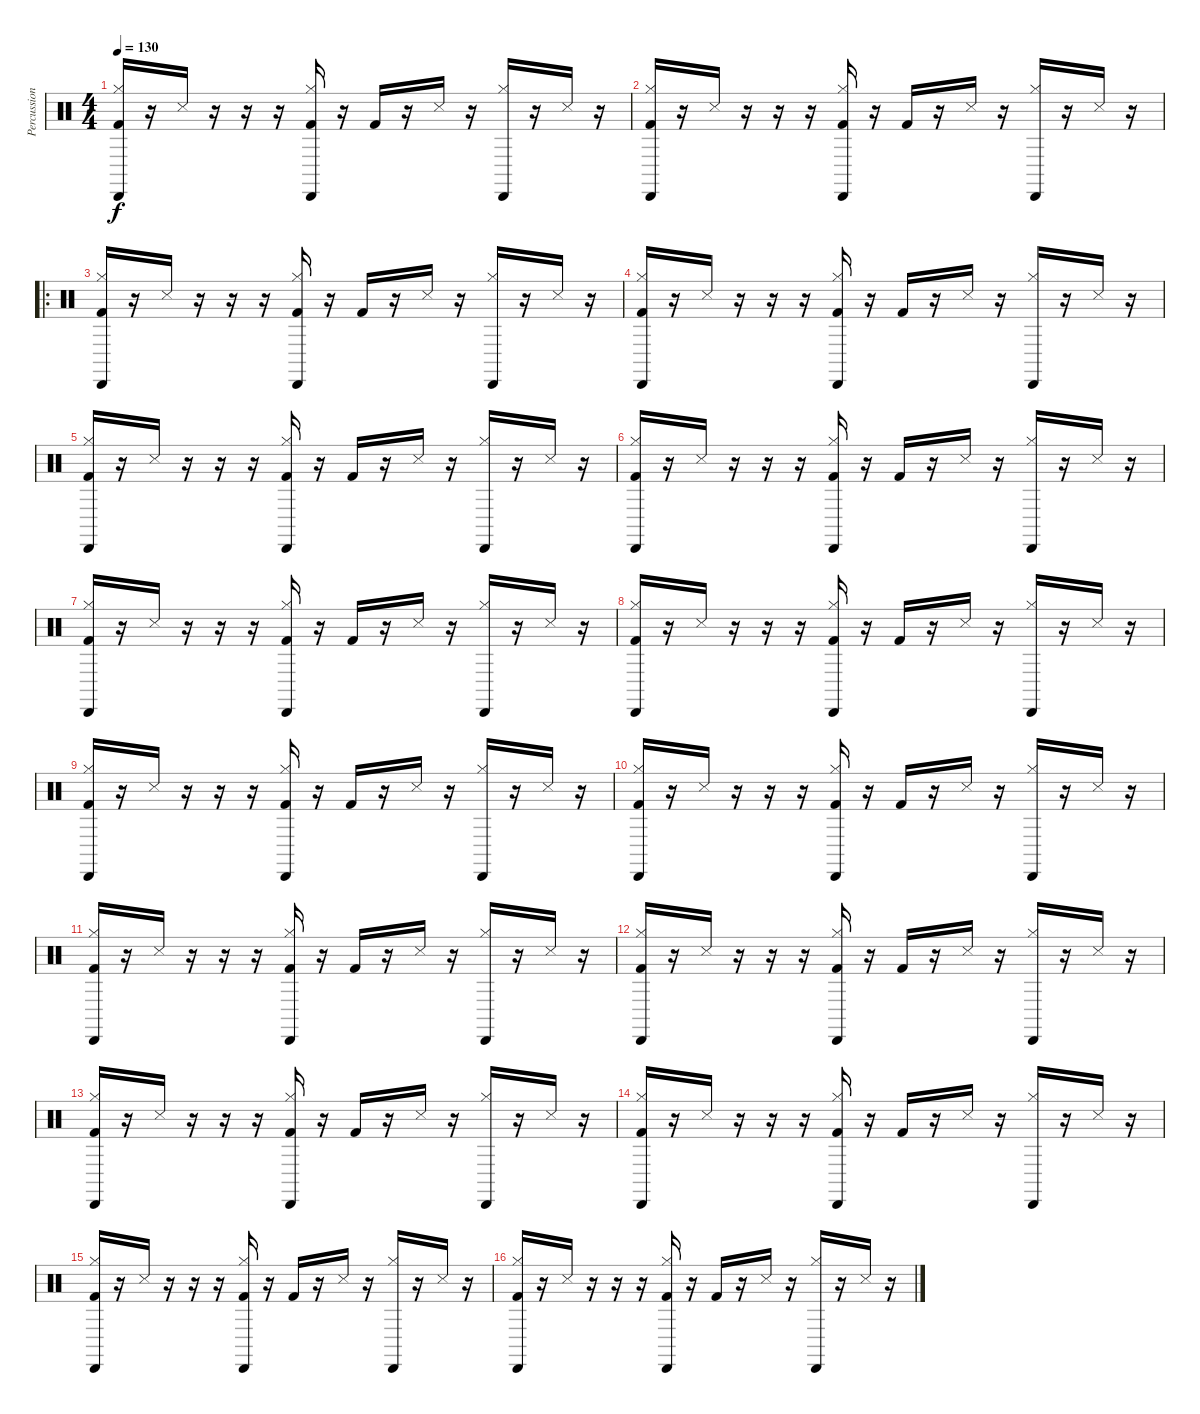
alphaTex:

\track ("Percussion" "Percussion") {instrument percussion}
\staff {score}
\articulation defaults
\ts (4 4)
\tempo 130
\clef neutral
\ks c
("Cabasa (hit)" "Hi-Hat (closed)" "Kick (hit) 2").16{dy f} r.16 "Snare (side stick) 3".16 r.16 r.16 r.16 ("Cabasa (hit)" "Hi-Hat (closed)" "Kick (hit) 2").16 r.16 "Kick (hit) 2".16 r.16 "Snare (side stick) 3".16 r.16 ("Cabasa (hit)" "Hi-Hat (closed)").16 r.16 "Snare (side stick) 3".16 r.16 |
("Cabasa (hit)" "Hi-Hat (closed)" "Kick (hit) 2").16 r.16 "Snare (side stick) 3".16 r.16 r.16 r.16 ("Cabasa (hit)" "Hi-Hat (closed)" "Kick (hit) 2").16 r.16 "Kick (hit) 2".16 r.16 "Snare (side stick) 3".16 r.16 ("Cabasa (hit)" "Hi-Hat (closed)").16 r.16 "Snare (side stick) 3".16 r.16 |
\ro
("Cabasa (hit)" "Hi-Hat (closed)" "Kick (hit) 2").16 r.16 "Snare (side stick) 3".16 r.16 r.16 r.16 ("Cabasa (hit)" "Hi-Hat (closed)" "Kick (hit) 2").16 r.16 "Kick (hit) 2".16 r.16 "Snare (side stick) 3".16 r.16 ("Cabasa (hit)" "Hi-Hat (closed)").16 r.16 "Snare (side stick) 3".16 r.16 |
("Cabasa (hit)" "Hi-Hat (closed)" "Kick (hit) 2").16 r.16 "Snare (side stick) 3".16 r.16 r.16 r.16 ("Cabasa (hit)" "Hi-Hat (closed)" "Kick (hit) 2").16 r.16 "Kick (hit) 2".16 r.16 "Snare (side stick) 3".16 r.16 ("Cabasa (hit)" "Hi-Hat (closed)").16 r.16 "Snare (side stick) 3".16 r.16 |
("Cabasa (hit)" "Hi-Hat (closed)" "Kick (hit) 2").16 r.16 "Snare (side stick) 3".16 r.16 r.16 r.16 ("Cabasa (hit)" "Hi-Hat (closed)" "Kick (hit) 2").16 r.16 "Kick (hit) 2".16 r.16 "Snare (side stick) 3".16 r.16 ("Cabasa (hit)" "Hi-Hat (closed)").16 r.16 "Snare (side stick) 3".16 r.16 |
("Cabasa (hit)" "Hi-Hat (closed)" "Kick (hit) 2").16 r.16 "Snare (side stick) 3".16 r.16 r.16 r.16 ("Cabasa (hit)" "Hi-Hat (closed)" "Kick (hit) 2").16 r.16 "Kick (hit) 2".16 r.16 "Snare (side stick) 3".16 r.16 ("Cabasa (hit)" "Hi-Hat (closed)").16 r.16 "Snare (side stick) 3".16 r.16 |
("Cabasa (hit)" "Hi-Hat (closed)" "Kick (hit) 2").16 r.16 "Snare (side stick) 3".16 r.16 r.16 r.16 ("Cabasa (hit)" "Hi-Hat (closed)" "Kick (hit) 2").16 r.16 "Kick (hit) 2".16 r.16 "Snare (side stick) 3".16 r.16 ("Cabasa (hit)" "Hi-Hat (closed)").16 r.16 "Snare (side stick) 3".16 r.16 |
("Cabasa (hit)" "Hi-Hat (closed)" "Kick (hit) 2").16 r.16 "Snare (side stick) 3".16 r.16 r.16 r.16 ("Cabasa (hit)" "Hi-Hat (closed)" "Kick (hit) 2").16 r.16 "Kick (hit) 2".16 r.16 "Snare (side stick) 3".16 r.16 ("Cabasa (hit)" "Hi-Hat (closed)").16 r.16 "Snare (side stick) 3".16 r.16 |
("Cabasa (hit)" "Hi-Hat (closed)" "Kick (hit) 2").16 r.16 "Snare (side stick) 3".16 r.16 r.16 r.16 ("Cabasa (hit)" "Hi-Hat (closed)" "Kick (hit) 2").16 r.16 "Kick (hit) 2".16 r.16 "Snare (side stick) 3".16 r.16 ("Cabasa (hit)" "Hi-Hat (closed)").16 r.16 "Snare (side stick) 3".16 r.16 |
("Cabasa (hit)" "Hi-Hat (closed)" "Kick (hit) 2").16 r.16 "Snare (side stick) 3".16 r.16 r.16 r.16 ("Cabasa (hit)" "Hi-Hat (closed)" "Kick (hit) 2").16 r.16 "Kick (hit) 2".16 r.16 "Snare (side stick) 3".16 r.16 ("Cabasa (hit)" "Hi-Hat (closed)").16 r.16 "Snare (side stick) 3".16 r.16 |
("Cabasa (hit)" "Hi-Hat (closed)" "Kick (hit) 2").16 r.16 "Snare (side stick) 3".16 r.16 r.16 r.16 ("Cabasa (hit)" "Hi-Hat (closed)" "Kick (hit) 2").16 r.16 "Kick (hit) 2".16 r.16 "Snare (side stick) 3".16 r.16 ("Cabasa (hit)" "Hi-Hat (closed)").16 r.16 "Snare (side stick) 3".16 r.16 |
("Cabasa (hit)" "Hi-Hat (closed)" "Kick (hit) 2").16 r.16 "Snare (side stick) 3".16 r.16 r.16 r.16 ("Cabasa (hit)" "Hi-Hat (closed)" "Kick (hit) 2").16 r.16 "Kick (hit) 2".16 r.16 "Snare (side stick) 3".16 r.16 ("Cabasa (hit)" "Hi-Hat (closed)").16 r.16 "Snare (side stick) 3".16 r.16 |
("Cabasa (hit)" "Hi-Hat (closed)" "Kick (hit) 2").16 r.16 "Snare (side stick) 3".16 r.16 r.16 r.16 ("Cabasa (hit)" "Hi-Hat (closed)" "Kick (hit) 2").16 r.16 "Kick (hit) 2".16 r.16 "Snare (side stick) 3".16 r.16 ("Cabasa (hit)" "Hi-Hat (closed)").16 r.16 "Snare (side stick) 3".16 r.16 |
("Cabasa (hit)" "Hi-Hat (closed)" "Kick (hit) 2").16 r.16 "Snare (side stick) 3".16 r.16 r.16 r.16 ("Cabasa (hit)" "Hi-Hat (closed)" "Kick (hit) 2").16 r.16 "Kick (hit) 2".16 r.16 "Snare (side stick) 3".16 r.16 ("Cabasa (hit)" "Hi-Hat (closed)").16 r.16 "Snare (side stick) 3".16 r.16 |
("Cabasa (hit)" "Hi-Hat (closed)" "Kick (hit) 2").16 r.16 "Snare (side stick) 3".16 r.16 r.16 r.16 ("Cabasa (hit)" "Hi-Hat (closed)" "Kick (hit) 2").16 r.16 "Kick (hit) 2".16 r.16 "Snare (side stick) 3".16 r.16 ("Cabasa (hit)" "Hi-Hat (closed)").16 r.16 "Snare (side stick) 3".16 r.16 |
("Cabasa (hit)" "Hi-Hat (closed)" "Kick (hit) 2").16 r.16 "Snare (side stick) 3".16 r.16 r.16 r.16 ("Cabasa (hit)" "Hi-Hat (closed)" "Kick (hit) 2").16 r.16 "Kick (hit) 2".16 r.16 "Snare (side stick) 3".16 r.16 ("Cabasa (hit)" "Hi-Hat (closed)").16 r.16 "Snare (side stick) 3".16 r.16
